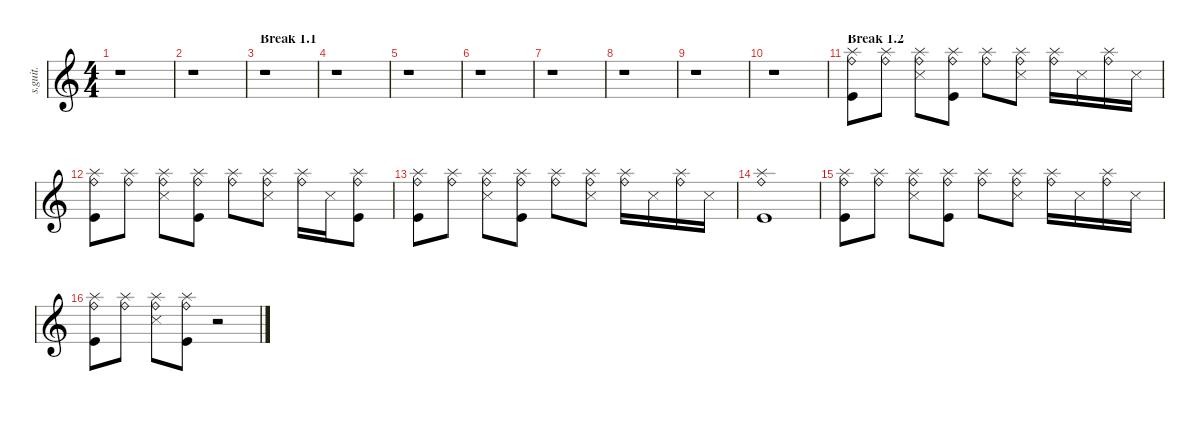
\defaultSystemsLayout 4
\hideDynamics
\bracketExtendMode nobrackets
\track ("Sample Drums" "s.guit.") {instrument percussion}
\staff {score}
\articulation defaults
\ts (4 4)
\tempo (210 hide)
\clef g2
\ks c
r.1{dy mf} |
r.1 |
\section ("" "Break 1.1")
r.1 |
r.1 |
r.1 |
r.1 |
r.1 |
r.1 |
r.1 |
r.1 |
\section ("" "Break 1.2")
\tempo (188 hide)
("Splash (hit)" "Ride (bell)" "Kick (hit)").8{lyrics (0 "") lyrics (1 "") lyrics (2 "") lyrics (3 "") lyrics (4 "")} ("Splash (hit)" "Ride (bell)").8{lyrics (0 "") lyrics (1 "") lyrics (2 "") lyrics (3 "") lyrics (4 "")} ("Splash (hit)" "Ride (bell)" "Snare (side stick) 3").8{lyrics (0 "") lyrics (1 "") lyrics (2 "") lyrics (3 "") lyrics (4 "")} ("Splash (hit)" "Ride (bell)" "Kick (hit)").8{lyrics (0 "") lyrics (1 "") lyrics (2 "") lyrics (3 "") lyrics (4 "")} ("Splash (hit)" "Ride (bell)").8{lyrics (0 "") lyrics (1 "") lyrics (2 "") lyrics (3 "") lyrics (4 "")} ("Splash (hit)" "Ride (bell)" "Snare (side stick) 3").8{lyrics (0 "") lyrics (1 "") lyrics (2 "") lyrics (3 "") lyrics (4 "")} ("Splash (hit)" "Ride (bell)").16{lyrics (0 "") lyrics (1 "") lyrics (2 "") lyrics (3 "") lyrics (4 "")} "Snare (side stick) 3".16{lyrics (0 "") lyrics (1 "") lyrics (2 "") lyrics (3 "") lyrics (4 "")} ("Splash (hit)" "Ride (bell)").16{lyrics (0 "") lyrics (1 "") lyrics (2 "") lyrics (3 "") lyrics (4 "")} "Snare (side stick) 3".16{lyrics (0 "") lyrics (1 "") lyrics (2 "") lyrics (3 "") lyrics (4 "")} |
("Splash (hit)" "Ride (bell)" "Kick (hit)").8{lyrics (0 "") lyrics (1 "") lyrics (2 "") lyrics (3 "") lyrics (4 "")} ("Splash (hit)" "Ride (bell)").8{lyrics (0 "") lyrics (1 "") lyrics (2 "") lyrics (3 "") lyrics (4 "")} ("Splash (hit)" "Ride (bell)" "Snare (side stick) 3").8{lyrics (0 "") lyrics (1 "") lyrics (2 "") lyrics (3 "") lyrics (4 "")} ("Splash (hit)" "Ride (bell)" "Kick (hit)").8{lyrics (0 "") lyrics (1 "") lyrics (2 "") lyrics (3 "") lyrics (4 "")} ("Splash (hit)" "Ride (bell)").8{lyrics (0 "") lyrics (1 "") lyrics (2 "") lyrics (3 "") lyrics (4 "")} ("Splash (hit)" "Ride (bell)" "Snare (side stick) 3").8{lyrics (0 "") lyrics (1 "") lyrics (2 "") lyrics (3 "") lyrics (4 "")} ("Splash (hit)" "Ride (bell)").16{lyrics (0 "") lyrics (1 "") lyrics (2 "") lyrics (3 "") lyrics (4 "")} "Snare (side stick) 3".16{lyrics (0 "") lyrics (1 "") lyrics (2 "") lyrics (3 "") lyrics (4 "")} ("Splash (hit)" "Ride (bell)" "Kick (hit)").8{lyrics (0 "") lyrics (1 "") lyrics (2 "") lyrics (3 "") lyrics (4 "")} |
("Splash (hit)" "Ride (bell)" "Kick (hit)").8{lyrics (0 "") lyrics (1 "") lyrics (2 "") lyrics (3 "") lyrics (4 "")} ("Splash (hit)" "Ride (bell)").8{lyrics (0 "") lyrics (1 "") lyrics (2 "") lyrics (3 "") lyrics (4 "")} ("Splash (hit)" "Ride (bell)" "Snare (side stick) 3").8{lyrics (0 "") lyrics (1 "") lyrics (2 "") lyrics (3 "") lyrics (4 "")} ("Splash (hit)" "Ride (bell)" "Kick (hit)").8{lyrics (0 "") lyrics (1 "") lyrics (2 "") lyrics (3 "") lyrics (4 "")} ("Splash (hit)" "Ride (bell)").8{lyrics (0 "") lyrics (1 "") lyrics (2 "") lyrics (3 "") lyrics (4 "")} ("Splash (hit)" "Ride (bell)" "Snare (side stick) 3").8{lyrics (0 "") lyrics (1 "") lyrics (2 "") lyrics (3 "") lyrics (4 "")} ("Splash (hit)" "Ride (bell)").16{lyrics (0 "") lyrics (1 "") lyrics (2 "") lyrics (3 "") lyrics (4 "")} "Snare (side stick) 3".16{lyrics (0 "") lyrics (1 "") lyrics (2 "") lyrics (3 "") lyrics (4 "")} ("Splash (hit)" "Ride (bell)").16{lyrics (0 "") lyrics (1 "") lyrics (2 "") lyrics (3 "") lyrics (4 "")} "Snare (side stick) 3".16{lyrics (0 "") lyrics (1 "") lyrics (2 "") lyrics (3 "") lyrics (4 "")} |
("Splash (hit)" "Ride (bell)" "Kick (hit)").1{lyrics (0 "") lyrics (1 "") lyrics (2 "") lyrics (3 "") lyrics (4 "")} |
\tempo (195 hide)
("Splash (hit)" "Ride (bell)" "Kick (hit)").8{lyrics (0 "") lyrics (1 "") lyrics (2 "") lyrics (3 "") lyrics (4 "")} ("Splash (hit)" "Ride (bell)").8{lyrics (0 "") lyrics (1 "") lyrics (2 "") lyrics (3 "") lyrics (4 "")} ("Splash (hit)" "Ride (bell)" "Snare (side stick) 3").8{lyrics (0 "") lyrics (1 "") lyrics (2 "") lyrics (3 "") lyrics (4 "")} ("Splash (hit)" "Ride (bell)" "Kick (hit)").8{lyrics (0 "") lyrics (1 "") lyrics (2 "") lyrics (3 "") lyrics (4 "")} ("Splash (hit)" "Ride (bell)").8{lyrics (0 "") lyrics (1 "") lyrics (2 "") lyrics (3 "") lyrics (4 "")} ("Splash (hit)" "Ride (bell)" "Snare (side stick) 3").8{lyrics (0 "") lyrics (1 "") lyrics (2 "") lyrics (3 "") lyrics (4 "")} ("Splash (hit)" "Ride (bell)").16{lyrics (0 "") lyrics (1 "") lyrics (2 "") lyrics (3 "") lyrics (4 "")} "Snare (side stick) 3".16{lyrics (0 "") lyrics (1 "") lyrics (2 "") lyrics (3 "") lyrics (4 "")} ("Splash (hit)" "Ride (bell)").16{lyrics (0 "") lyrics (1 "") lyrics (2 "") lyrics (3 "") lyrics (4 "")} "Snare (side stick) 3".16{lyrics (0 "") lyrics (1 "") lyrics (2 "") lyrics (3 "") lyrics (4 "")} |
("Splash (hit)" "Ride (bell)" "Kick (hit)").8{lyrics (0 "") lyrics (1 "") lyrics (2 "") lyrics (3 "") lyrics (4 "")} ("Splash (hit)" "Ride (bell)").8{lyrics (0 "") lyrics (1 "") lyrics (2 "") lyrics (3 "") lyrics (4 "")} ("Splash (hit)" "Ride (bell)" "Snare (side stick) 3").8{lyrics (0 "") lyrics (1 "") lyrics (2 "") lyrics (3 "") lyrics (4 "")} ("Splash (hit)" "Ride (bell)" "Kick (hit)").8{lyrics (0 "") lyrics (1 "") lyrics (2 "") lyrics (3 "") lyrics (4 "")} r.2
